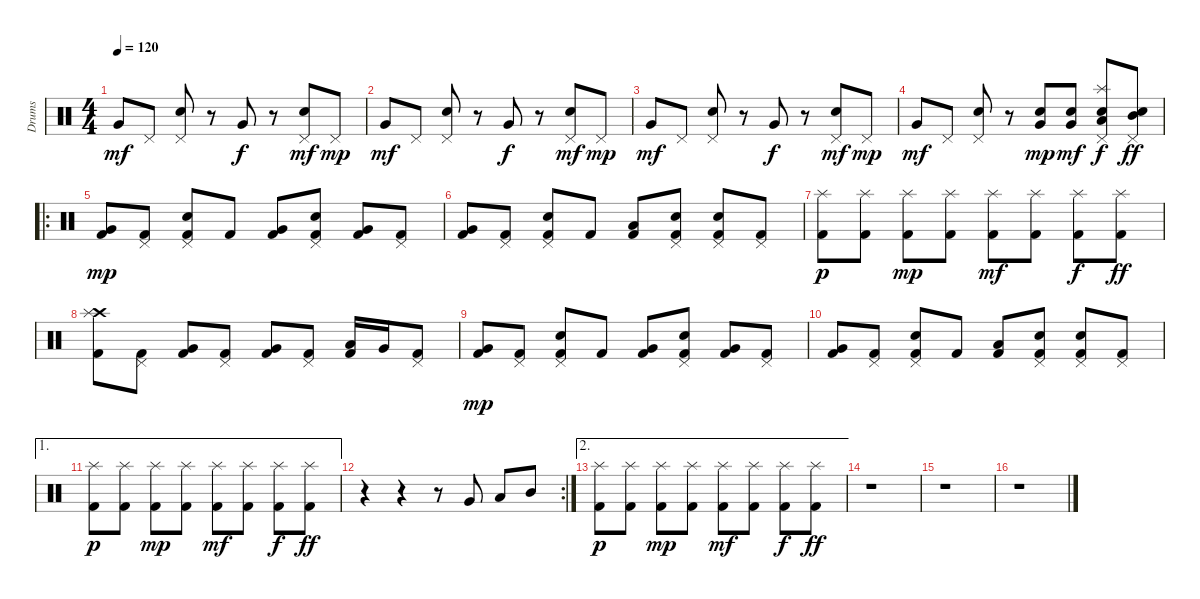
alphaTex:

\track ("Drums" "Drums") {instrument percussion}
\staff {score}
\articulation defaults
\ts (4 4)
\tempo 120
\clef neutral
\ks c "Very Low Tom (hit)".8{dy mf} "Pedal Hi-Hat (hit)".8
("Pedal Hi-Hat (hit)" "Electric Snare (hit)").8 r.8 "Very Low Tom (hit)".8{dy f} r.8 ("Pedal Hi-Hat (hit)" "Electric Snare (hit)").8{dy mf} "Pedal Hi-Hat (hit)".8{dy mp} |
"Very Low Tom (hit)".8{dy mf} "Pedal Hi-Hat (hit)".8 ("Pedal Hi-Hat (hit)" "Electric Snare (hit)").8 r.8 "Very Low Tom (hit)".8{dy f} r.8 ("Pedal Hi-Hat (hit)" "Electric Snare (hit)").8{dy mf} "Pedal Hi-Hat (hit)".8{dy mp} |
"Very Low Tom (hit)".8{dy mf} "Pedal Hi-Hat (hit)".8 ("Pedal Hi-Hat (hit)" "Electric Snare (hit)").8 r.8 "Very Low Tom (hit)".8{dy f} r.8 ("Pedal Hi-Hat (hit)" "Electric Snare (hit)").8{dy mf} "Pedal Hi-Hat (hit)".8{dy mp} |
"Very Low Tom (hit)".8{dy mf} "Pedal Hi-Hat (hit)".8 ("Pedal Hi-Hat (hit)" "Electric Snare (hit)").8 r.8 ("Very Low Tom (hit)" "Electric Snare (hit)").8{dy mp} ("Electric Snare (hit)" "Very Low Tom (hit)").8{dy mf} ("Splash (hit)" "Pedal Hi-Hat (hit)" "Electric Snare (hit)" "Low Tom (hit)").8{dy f} ("Pedal Hi-Hat (hit)" "Electric Snare (hit)" "Mid Tom (hit)").8{dy ff} |
\ro
("Very Low Tom (hit)" "Kick (hit) 2").8{dy mp} ("Pedal Hi-Hat (hit)" "Kick (hit) 2").8 ("Pedal Hi-Hat (hit)" "Electric Snare (hit)" "Kick (hit) 2").8 "Kick (hit) 2".8 ("Very Low Tom (hit)" "Kick (hit) 2").8 ("Pedal Hi-Hat (hit)" "Electric Snare (hit)" "Kick (hit) 2").8 ("Very Low Tom (hit)" "Kick (hit) 2").8 ("Pedal Hi-Hat (hit)" "Kick (hit) 2").8 |
("Very Low Tom (hit)" "Kick (hit) 2").8 ("Pedal Hi-Hat (hit)" "Kick (hit) 2").8 ("Pedal Hi-Hat (hit)" "Electric Snare (hit)" "Kick (hit) 2").8 "Kick (hit) 2".8 ("Low Tom (hit)" "Kick (hit) 2").8 ("Pedal Hi-Hat (hit)" "Electric Snare (hit)" "Kick (hit) 2").8 ("Pedal Hi-Hat (hit)" "Electric Snare (hit)" "Kick (hit) 2").8 ("Pedal Hi-Hat (hit)" "Kick (hit) 2").8 |
("Splash (hit)" "Kick (hit) 2").8{dy p} ("Splash (hit)" "Kick (hit) 2").8 ("Splash (hit)" "Kick (hit) 2").8{dy mp} ("Splash (hit)" "Kick (hit) 2").8 ("Splash (hit)" "Kick (hit) 2").8{dy mf} ("Splash (hit)" "Kick (hit) 2").8 ("Splash (hit)" "Kick (hit) 2").8{dy f} ("Splash (hit)" "Kick (hit) 2").8{dy ff} |
("Crash high (hit)" "Splash (hit)" "Kick (hit) 2").8 ("Pedal Hi-Hat (hit)" "Kick (hit) 2").8 ("Very Low Tom (hit)" "Kick (hit) 2").8 ("Pedal Hi-Hat (hit)" "Kick (hit) 2").8 ("Very Low Tom (hit)" "Kick (hit) 2").8 ("Pedal Hi-Hat (hit)" "Kick (hit) 2").8 ("Low Tom (hit)" "Kick (hit) 2").16 "Very Low Tom (hit)".16 ("Pedal Hi-Hat (hit)" "Kick (hit) 2").8 |
("Very Low Tom (hit)" "Kick (hit) 2").8{dy mp} ("Pedal Hi-Hat (hit)" "Kick (hit) 2").8 ("Pedal Hi-Hat (hit)" "Electric Snare (hit)" "Kick (hit) 2").8 "Kick (hit) 2".8 ("Very Low Tom (hit)" "Kick (hit) 2").8 ("Pedal Hi-Hat (hit)" "Electric Snare (hit)" "Kick (hit) 2").8 ("Very Low Tom (hit)" "Kick (hit) 2").8 ("Pedal Hi-Hat (hit)" "Kick (hit) 2").8 |
("Very Low Tom (hit)" "Kick (hit) 2").8 ("Pedal Hi-Hat (hit)" "Kick (hit) 2").8 ("Pedal Hi-Hat (hit)" "Electric Snare (hit)" "Kick (hit) 2").8 "Kick (hit) 2".8 ("Low Tom (hit)" "Kick (hit) 2").8 ("Pedal Hi-Hat (hit)" "Electric Snare (hit)" "Kick (hit) 2").8 ("Pedal Hi-Hat (hit)" "Electric Snare (hit)" "Kick (hit) 2").8 ("Pedal Hi-Hat (hit)" "Kick (hit) 2").8 |
\ae 1
("Splash (hit)" "Kick (hit) 2").8{dy p} ("Splash (hit)" "Kick (hit) 2").8 ("Splash (hit)" "Kick (hit) 2").8{dy mp} ("Splash (hit)" "Kick (hit) 2").8 ("Splash (hit)" "Kick (hit) 2").8{dy mf} ("Splash (hit)" "Kick (hit) 2").8 ("Splash (hit)" "Kick (hit) 2").8{dy f} ("Splash (hit)" "Kick (hit) 2").8{dy ff} |
\rc 2
r.4 r.4 r.8 "Very Low Tom (hit)".8 "Low Tom (hit)".8 "Mid Tom (hit)".8 |
\ae 2
("Splash (hit)" "Kick (hit) 2").8{dy p} ("Splash (hit)" "Kick (hit) 2").8 ("Splash (hit)" "Kick (hit) 2").8{dy mp} ("Splash (hit)" "Kick (hit) 2").8 ("Splash (hit)" "Kick (hit) 2").8{dy mf} ("Splash (hit)" "Kick (hit) 2").8 ("Splash (hit)" "Kick (hit) 2").8{dy f} ("Splash (hit)" "Kick (hit) 2").8{dy ff} |
r.1 |
r.1 |
r.1
